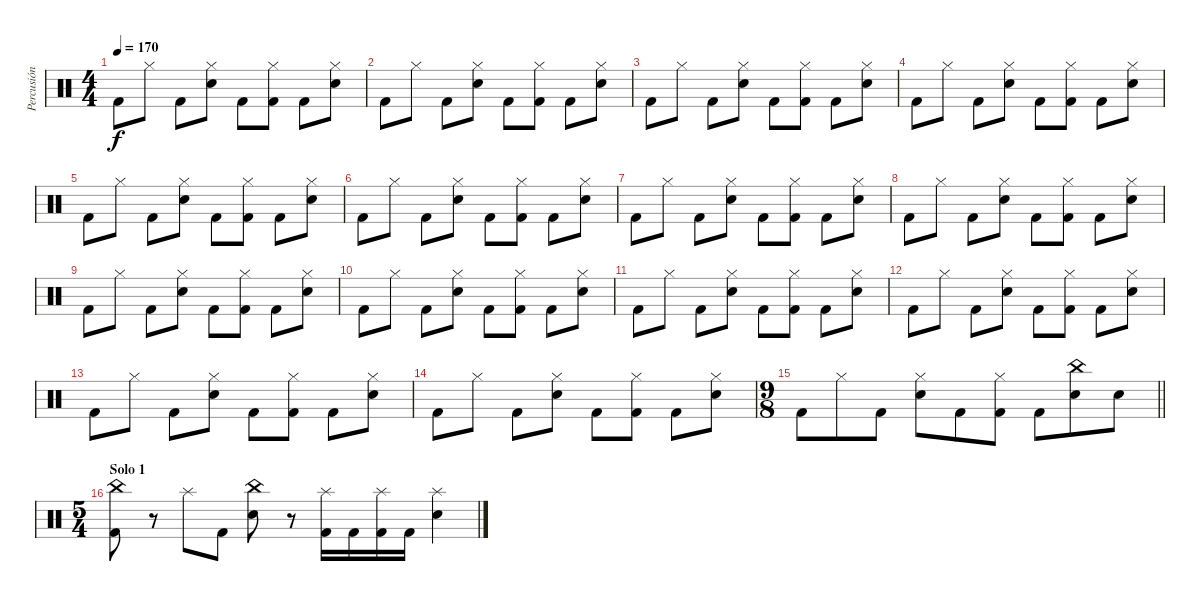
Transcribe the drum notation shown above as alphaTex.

\track ("Percusión" "Percusión") {instrument percussion}
\staff {score}
\articulation defaults
\ts (4 4)
\tempo 170
\clef neutral
\ks c "Kick (hit) 2".8{dy f} "Hi-Hat (closed)".8 "Kick (hit) 2".8
("Hi-Hat (closed)" "Electric Snare (hit)").8 "Kick (hit) 2".8 ("Hi-Hat (closed)" "Kick (hit) 2").8 "Kick (hit) 2".8 ("Hi-Hat (closed)" "Electric Snare (hit)").8 |
"Kick (hit) 2".8 "Hi-Hat (closed)".8 "Kick (hit) 2".8 ("Hi-Hat (closed)" "Electric Snare (hit)").8 "Kick (hit) 2".8 ("Hi-Hat (closed)" "Kick (hit) 2").8 "Kick (hit) 2".8 ("Hi-Hat (closed)" "Electric Snare (hit)").8 |
"Kick (hit) 2".8 "Hi-Hat (closed)".8 "Kick (hit) 2".8 ("Hi-Hat (closed)" "Electric Snare (hit)").8 "Kick (hit) 2".8 ("Hi-Hat (closed)" "Kick (hit) 2").8 "Kick (hit) 2".8 ("Hi-Hat (closed)" "Electric Snare (hit)").8 |
"Kick (hit) 2".8 "Hi-Hat (closed)".8 "Kick (hit) 2".8 ("Hi-Hat (closed)" "Electric Snare (hit)").8 "Kick (hit) 2".8 ("Hi-Hat (closed)" "Kick (hit) 2").8 "Kick (hit) 2".8 ("Hi-Hat (closed)" "Electric Snare (hit)").8 |
"Kick (hit) 2".8 "Hi-Hat (closed)".8 "Kick (hit) 2".8 ("Hi-Hat (closed)" "Electric Snare (hit)").8 "Kick (hit) 2".8 ("Hi-Hat (closed)" "Kick (hit) 2").8 "Kick (hit) 2".8 ("Hi-Hat (closed)" "Electric Snare (hit)").8 |
"Kick (hit) 2".8 "Hi-Hat (closed)".8 "Kick (hit) 2".8 ("Hi-Hat (closed)" "Electric Snare (hit)").8 "Kick (hit) 2".8 ("Hi-Hat (closed)" "Kick (hit) 2").8 "Kick (hit) 2".8 ("Hi-Hat (closed)" "Electric Snare (hit)").8 |
"Kick (hit) 2".8 "Hi-Hat (closed)".8 "Kick (hit) 2".8 ("Hi-Hat (closed)" "Electric Snare (hit)").8 "Kick (hit) 2".8 ("Hi-Hat (closed)" "Kick (hit) 2").8 "Kick (hit) 2".8 ("Hi-Hat (closed)" "Electric Snare (hit)").8 |
"Kick (hit) 2".8 "Hi-Hat (closed)".8 "Kick (hit) 2".8 ("Hi-Hat (closed)" "Electric Snare (hit)").8 "Kick (hit) 2".8 ("Hi-Hat (closed)" "Kick (hit) 2").8 "Kick (hit) 2".8 ("Hi-Hat (closed)" "Electric Snare (hit)").8 |
"Kick (hit) 2".8 "Hi-Hat (closed)".8 "Kick (hit) 2".8 ("Hi-Hat (closed)" "Electric Snare (hit)").8 "Kick (hit) 2".8 ("Hi-Hat (closed)" "Kick (hit) 2").8 "Kick (hit) 2".8 ("Hi-Hat (closed)" "Electric Snare (hit)").8 |
"Kick (hit) 2".8 "Hi-Hat (closed)".8 "Kick (hit) 2".8 ("Hi-Hat (closed)" "Electric Snare (hit)").8 "Kick (hit) 2".8 ("Hi-Hat (closed)" "Kick (hit) 2").8 "Kick (hit) 2".8 ("Hi-Hat (closed)" "Electric Snare (hit)").8 |
"Kick (hit) 2".8 "Hi-Hat (closed)".8 "Kick (hit) 2".8 ("Hi-Hat (closed)" "Electric Snare (hit)").8 "Kick (hit) 2".8 ("Hi-Hat (closed)" "Kick (hit) 2").8 "Kick (hit) 2".8 ("Hi-Hat (closed)" "Electric Snare (hit)").8 |
"Kick (hit) 2".8 "Hi-Hat (closed)".8 "Kick (hit) 2".8 ("Hi-Hat (closed)" "Electric Snare (hit)").8 "Kick (hit) 2".8 ("Hi-Hat (closed)" "Kick (hit) 2").8 "Kick (hit) 2".8 ("Hi-Hat (closed)" "Electric Snare (hit)").8 |
"Kick (hit) 2".8 "Hi-Hat (closed)".8 "Kick (hit) 2".8 ("Hi-Hat (closed)" "Electric Snare (hit)").8 "Kick (hit) 2".8 ("Hi-Hat (closed)" "Kick (hit) 2").8 "Kick (hit) 2".8 ("Hi-Hat (closed)" "Electric Snare (hit)").8 |
"Kick (hit) 2".8 "Hi-Hat (closed)".8 "Kick (hit) 2".8 ("Hi-Hat (closed)" "Electric Snare (hit)").8 "Kick (hit) 2".8 ("Hi-Hat (closed)" "Kick (hit) 2").8 "Kick (hit) 2".8 ("Hi-Hat (closed)" "Electric Snare (hit)").8 |
\ts (9 8)
\barLineRight lightlight "Kick (hit) 2".8 "Hi-Hat (closed)".8 "Kick (hit) 2".8
("Hi-Hat (closed)" "Electric Snare (hit)").8 "Kick (hit) 2".8 ("Hi-Hat (closed)" "Kick (hit) 2").8 "Kick (hit) 2".8 ("China (hit)" "Electric Snare (hit)").8 "Electric Snare (hit)".8 |
\ts (5 4)
\section ("" "Solo 1")
("China (hit)" "Kick (hit) 2").8 r.8 "Splash (hit)".8 "Kick (hit) 2".8 ("China (hit)" "Snare (hit) 2").8 r.8 ("Splash (hit)" "Kick (hit) 2").16 "Kick (hit) 2".16 ("Splash (hit)" "Kick (hit) 2").16 "Kick (hit) 2".16 ("Splash (hit)" "Snare (hit) 2").4
